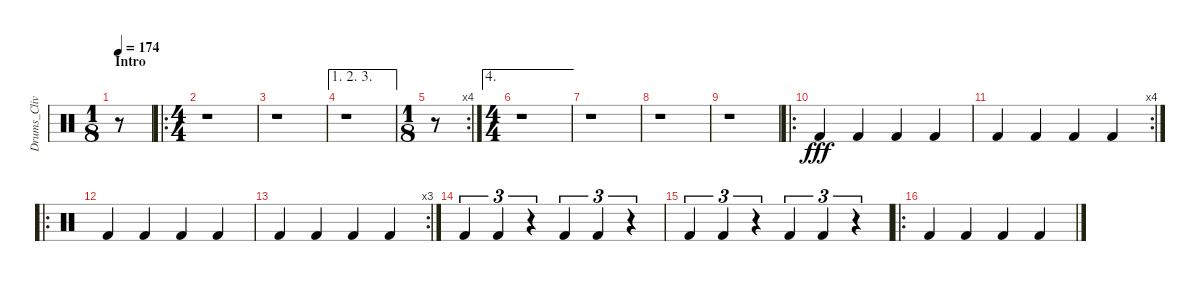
\track ("Drums_CliveBurr" "Drums_Cliv") {instrument percussion}
\staff {score}
\articulation defaults
\ts (1 8)
\section ("" "Intro")
\tempo 174
\clef neutral
\ks c
r.8{dy fff} |
\ro
\ts (4 4)
r.1 |
r.1 |
\ae (1 2 3)
r.1 |
\rc 4
\ts (1 8)
r.8 |
\ae 4
\ts (4 4)
r.1 |
r.1 |
r.1 |
r.1 |
\ro "Kick (hit) 2".4 "Kick (hit) 2".4 "Kick (hit) 2".4 "Kick (hit) 2".4
|
\rc 4 "Kick (hit) 2".4 "Kick (hit) 2".4 "Kick (hit) 2".4 "Kick (hit) 2".4
|
\ro "Kick (hit) 2".4 "Kick (hit) 2".4 "Kick (hit) 2".4 "Kick (hit) 2".4
|
\rc 3 "Kick (hit) 2".4 "Kick (hit) 2".4 "Kick (hit) 2".4 "Kick (hit) 2".4
|
"Kick (hit) 2".4{tu (3 2)} "Kick (hit) 2".4{tu (3 2)} r.4{tu (3 2)} "Kick (hit) 2".4{tu (3 2)} "Kick (hit) 2".4{tu (3 2)} r.4{tu (3 2)} |
"Kick (hit) 2".4{tu (3 2)} "Kick (hit) 2".4{tu (3 2)} r.4{tu (3 2)} "Kick (hit) 2".4{tu (3 2)} "Kick (hit) 2".4{tu (3 2)} r.4{tu (3 2)} |
\ro "Kick (hit) 2".4 "Kick (hit) 2".4 "Kick (hit) 2".4 "Kick (hit) 2".4
